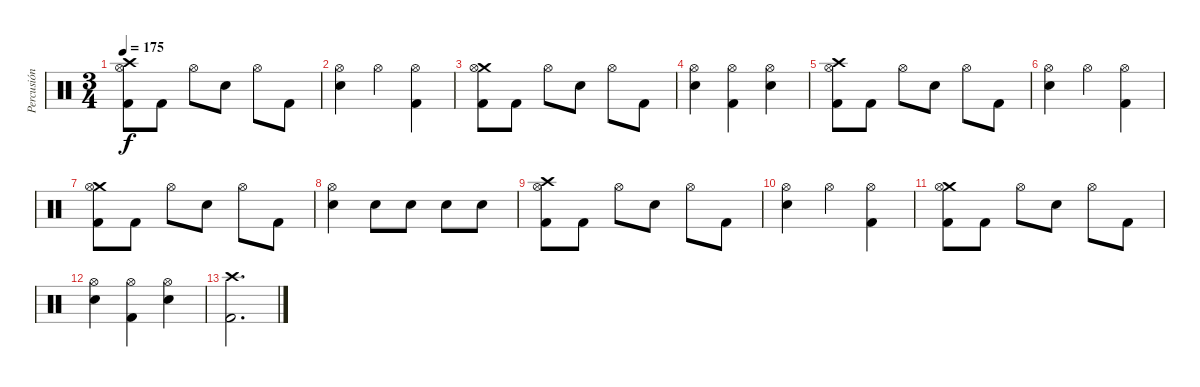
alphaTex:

\track ("Percusión" "Percusión") {instrument percussion}
\staff {score}
\articulation defaults
\ts (3 4)
\tempo 175
\clef neutral
\ks c
("Crash high (hit)" "Hi-Hat (open)" "Kick (hit) 2").8{dy f} "Kick (hit) 2".8 "Hi-Hat (open)".8 "Snare (hit) 2".8 "Hi-Hat (open)".8 "Kick (hit) 2".8 |
("Hi-Hat (open)" "Snare (hit) 2").4 "Hi-Hat (open)".4 ("Hi-Hat (open)" "Kick (hit) 2").4 |
("Crash medium (hit)" "Hi-Hat (open)" "Kick (hit) 2").8 "Kick (hit) 2".8 "Hi-Hat (open)".8 "Snare (hit) 2".8 "Hi-Hat (open)".8 "Kick (hit) 2".8 |
("Hi-Hat (open)" "Snare (hit) 2").4 ("Hi-Hat (open)" "Kick (hit) 2").4 ("Hi-Hat (open)" "Snare (hit) 2").4 |
("Crash high (hit)" "Hi-Hat (open)" "Kick (hit) 2").8 "Kick (hit) 2".8 "Hi-Hat (open)".8 "Snare (hit) 2".8 "Hi-Hat (open)".8 "Kick (hit) 2".8 |
("Hi-Hat (open)" "Snare (hit) 2").4 "Hi-Hat (open)".4 ("Hi-Hat (open)" "Kick (hit) 2").4 |
("Crash medium (hit)" "Hi-Hat (open)" "Kick (hit) 2").8 "Kick (hit) 2".8 "Hi-Hat (open)".8 "Snare (hit) 2".8 "Hi-Hat (open)".8 "Kick (hit) 2".8 |
("Hi-Hat (open)" "Snare (hit) 2").4 "Snare (hit) 2".8 "Snare (hit) 2".8 "Snare (hit) 2".8 "Snare (hit) 2".8 |
("Crash high (hit)" "Hi-Hat (open)" "Kick (hit) 2").8 "Kick (hit) 2".8 "Hi-Hat (open)".8 "Snare (hit) 2".8 "Hi-Hat (open)".8 "Kick (hit) 2".8 |
("Hi-Hat (open)" "Snare (hit) 2").4 "Hi-Hat (open)".4 ("Hi-Hat (open)" "Kick (hit) 2").4 |
("Crash medium (hit)" "Hi-Hat (open)" "Kick (hit) 2").8 "Kick (hit) 2".8 "Hi-Hat (open)".8 "Snare (hit) 2".8 "Hi-Hat (open)".8 "Kick (hit) 2".8 |
("Hi-Hat (open)" "Snare (hit) 2").4 ("Hi-Hat (open)" "Kick (hit) 2").4 ("Hi-Hat (open)" "Snare (hit) 2").4 |
("Crash high (hit)" "Kick (hit) 2").2{d}
